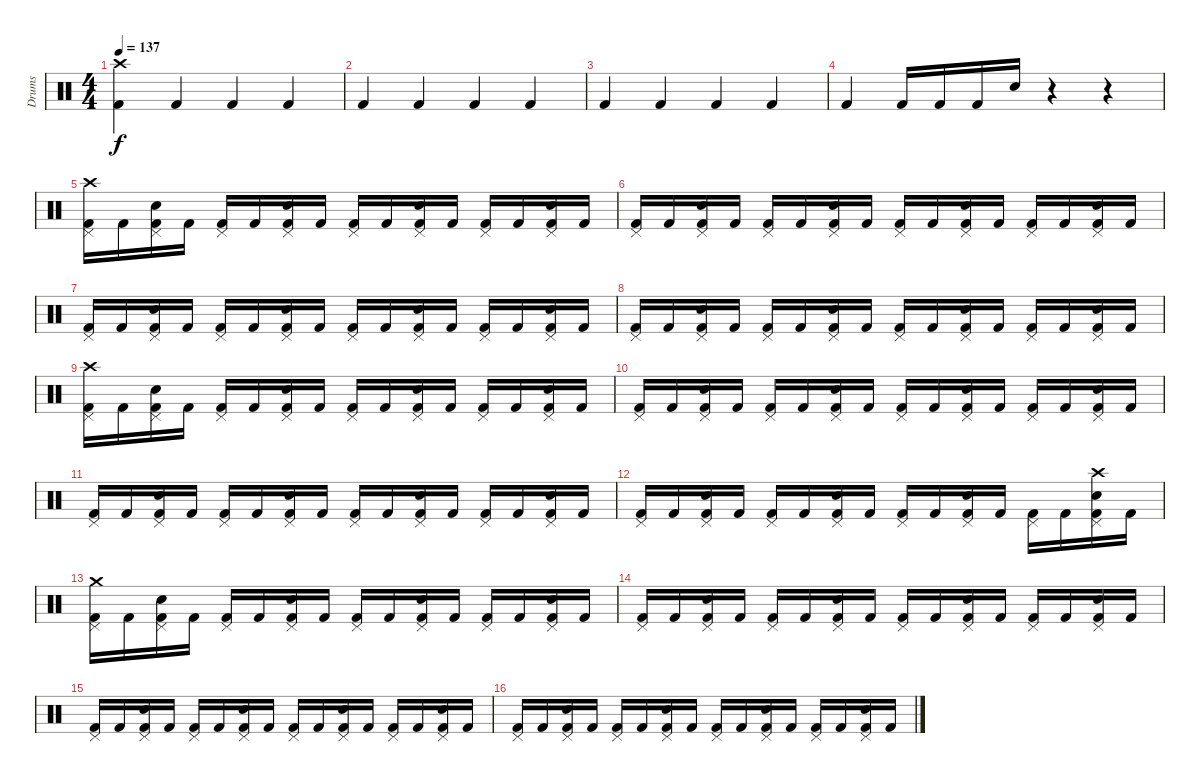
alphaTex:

\track ("Drums" "Drums") {instrument percussion}
\staff
\articulation defaults
\ts (4 4)
\tempo 137
\clef neutral
\ks c
("Crash high (hit)" "Kick (hit) 2").4{dy f} "Kick (hit) 2".4 "Kick (hit) 2".4 "Kick (hit) 2".4 |
"Kick (hit) 2".4 "Kick (hit) 2".4 "Kick (hit) 2".4 "Kick (hit) 2".4 |
"Kick (hit) 2".4 "Kick (hit) 2".4 "Kick (hit) 2".4 "Kick (hit) 2".4 |
"Kick (hit) 2".4 "Kick (hit) 2".16 "Kick (hit) 2".16 "Kick (hit) 2".16 "Snare (hit) 2".16 r.4 r.4 |
("Crash high (hit)" "Pedal Hi-Hat (hit)" "Kick (hit) 2").16 "Kick (hit) 2".16 ("Pedal Hi-Hat (hit)" "Snare (hit) 2" "Kick (hit) 2").16 "Kick (hit) 2".16 ("Pedal Hi-Hat (hit)" "Kick (hit) 2").16 "Kick (hit) 2".16 ("Pedal Hi-Hat (hit)" "Snare (hit) 2" "Kick (hit) 2").16 "Kick (hit) 2".16 ("Pedal Hi-Hat (hit)" "Kick (hit) 2").16 "Kick (hit) 2".16 ("Pedal Hi-Hat (hit)" "Snare (hit) 2" "Kick (hit) 2").16 "Kick (hit) 2".16 ("Pedal Hi-Hat (hit)" "Kick (hit) 2").16 "Kick (hit) 2".16 ("Pedal Hi-Hat (hit)" "Snare (hit) 2" "Kick (hit) 2").16 "Kick (hit) 2".16 |
("Pedal Hi-Hat (hit)" "Kick (hit) 2").16 "Kick (hit) 2".16 ("Pedal Hi-Hat (hit)" "Snare (hit) 2" "Kick (hit) 2").16 "Kick (hit) 2".16 ("Pedal Hi-Hat (hit)" "Kick (hit) 2").16 "Kick (hit) 2".16 ("Pedal Hi-Hat (hit)" "Snare (hit) 2" "Kick (hit) 2").16 "Kick (hit) 2".16 ("Pedal Hi-Hat (hit)" "Kick (hit) 2").16 "Kick (hit) 2".16 ("Pedal Hi-Hat (hit)" "Snare (hit) 2" "Kick (hit) 2").16 "Kick (hit) 2".16 ("Pedal Hi-Hat (hit)" "Kick (hit) 2").16 "Kick (hit) 2".16 ("Pedal Hi-Hat (hit)" "Snare (hit) 2" "Kick (hit) 2").16 "Kick (hit) 2".16 |
("Pedal Hi-Hat (hit)" "Kick (hit) 2").16 "Kick (hit) 2".16 ("Pedal Hi-Hat (hit)" "Snare (hit) 2" "Kick (hit) 2").16 "Kick (hit) 2".16 ("Pedal Hi-Hat (hit)" "Kick (hit) 2").16 "Kick (hit) 2".16 ("Pedal Hi-Hat (hit)" "Snare (hit) 2" "Kick (hit) 2").16 "Kick (hit) 2".16 ("Pedal Hi-Hat (hit)" "Kick (hit) 2").16 "Kick (hit) 2".16 ("Pedal Hi-Hat (hit)" "Snare (hit) 2" "Kick (hit) 2").16 "Kick (hit) 2".16 ("Pedal Hi-Hat (hit)" "Kick (hit) 2").16 "Kick (hit) 2".16 ("Pedal Hi-Hat (hit)" "Snare (hit) 2" "Kick (hit) 2").16 "Kick (hit) 2".16 |
("Pedal Hi-Hat (hit)" "Kick (hit) 2").16 "Kick (hit) 2".16 ("Pedal Hi-Hat (hit)" "Snare (hit) 2" "Kick (hit) 2").16 "Kick (hit) 2".16 ("Pedal Hi-Hat (hit)" "Kick (hit) 2").16 "Kick (hit) 2".16 ("Pedal Hi-Hat (hit)" "Snare (hit) 2" "Kick (hit) 2").16 "Kick (hit) 2".16 ("Pedal Hi-Hat (hit)" "Kick (hit) 2").16 "Kick (hit) 2".16 ("Pedal Hi-Hat (hit)" "Snare (hit) 2" "Kick (hit) 2").16 "Kick (hit) 2".16 ("Pedal Hi-Hat (hit)" "Kick (hit) 2").16 "Kick (hit) 2".16 ("Pedal Hi-Hat (hit)" "Snare (hit) 2" "Kick (hit) 2").16 "Kick (hit) 2".16 |
("Crash high (hit)" "Pedal Hi-Hat (hit)" "Kick (hit) 2").16 "Kick (hit) 2".16 ("Pedal Hi-Hat (hit)" "Snare (hit) 2" "Kick (hit) 2").16 "Kick (hit) 2".16 ("Pedal Hi-Hat (hit)" "Kick (hit) 2").16 "Kick (hit) 2".16 ("Pedal Hi-Hat (hit)" "Snare (hit) 2" "Kick (hit) 2").16 "Kick (hit) 2".16 ("Pedal Hi-Hat (hit)" "Kick (hit) 2").16 "Kick (hit) 2".16 ("Pedal Hi-Hat (hit)" "Snare (hit) 2" "Kick (hit) 2").16 "Kick (hit) 2".16 ("Pedal Hi-Hat (hit)" "Kick (hit) 2").16 "Kick (hit) 2".16 ("Pedal Hi-Hat (hit)" "Snare (hit) 2" "Kick (hit) 2").16 "Kick (hit) 2".16 |
("Pedal Hi-Hat (hit)" "Kick (hit) 2").16 "Kick (hit) 2".16 ("Pedal Hi-Hat (hit)" "Snare (hit) 2" "Kick (hit) 2").16 "Kick (hit) 2".16 ("Pedal Hi-Hat (hit)" "Kick (hit) 2").16 "Kick (hit) 2".16 ("Pedal Hi-Hat (hit)" "Snare (hit) 2" "Kick (hit) 2").16 "Kick (hit) 2".16 ("Pedal Hi-Hat (hit)" "Kick (hit) 2").16 "Kick (hit) 2".16 ("Pedal Hi-Hat (hit)" "Snare (hit) 2" "Kick (hit) 2").16 "Kick (hit) 2".16 ("Pedal Hi-Hat (hit)" "Kick (hit) 2").16 "Kick (hit) 2".16 ("Pedal Hi-Hat (hit)" "Snare (hit) 2" "Kick (hit) 2").16 "Kick (hit) 2".16 |
("Pedal Hi-Hat (hit)" "Kick (hit) 2").16 "Kick (hit) 2".16 ("Pedal Hi-Hat (hit)" "Snare (hit) 2" "Kick (hit) 2").16 "Kick (hit) 2".16 ("Pedal Hi-Hat (hit)" "Kick (hit) 2").16 "Kick (hit) 2".16 ("Pedal Hi-Hat (hit)" "Snare (hit) 2" "Kick (hit) 2").16 "Kick (hit) 2".16 ("Pedal Hi-Hat (hit)" "Kick (hit) 2").16 "Kick (hit) 2".16 ("Pedal Hi-Hat (hit)" "Snare (hit) 2" "Kick (hit) 2").16 "Kick (hit) 2".16 ("Pedal Hi-Hat (hit)" "Kick (hit) 2").16 "Kick (hit) 2".16 ("Pedal Hi-Hat (hit)" "Snare (hit) 2" "Kick (hit) 2").16 "Kick (hit) 2".16 |
("Pedal Hi-Hat (hit)" "Kick (hit) 2").16 "Kick (hit) 2".16 ("Pedal Hi-Hat (hit)" "Snare (hit) 2" "Kick (hit) 2").16 "Kick (hit) 2".16 ("Pedal Hi-Hat (hit)" "Kick (hit) 2").16 "Kick (hit) 2".16 ("Pedal Hi-Hat (hit)" "Snare (hit) 2" "Kick (hit) 2").16 "Kick (hit) 2".16 ("Pedal Hi-Hat (hit)" "Kick (hit) 2").16 "Kick (hit) 2".16 ("Pedal Hi-Hat (hit)" "Snare (hit) 2" "Kick (hit) 2").16 "Kick (hit) 2".16 ("Pedal Hi-Hat (hit)" "Kick (hit) 2").16 "Kick (hit) 2".16 ("Crash high (hit)" "Pedal Hi-Hat (hit)" "Snare (hit) 2" "Kick (hit) 2").16 "Kick (hit) 2".16 |
("Crash medium (hit)" "Pedal Hi-Hat (hit)" "Kick (hit) 2").16 "Kick (hit) 2".16 ("Pedal Hi-Hat (hit)" "Snare (hit) 2" "Kick (hit) 2").16 "Kick (hit) 2".16 ("Pedal Hi-Hat (hit)" "Kick (hit) 2").16 "Kick (hit) 2".16 ("Pedal Hi-Hat (hit)" "Snare (hit) 2" "Kick (hit) 2").16 "Kick (hit) 2".16 ("Pedal Hi-Hat (hit)" "Kick (hit) 2").16 "Kick (hit) 2".16 ("Pedal Hi-Hat (hit)" "Snare (hit) 2" "Kick (hit) 2").16 "Kick (hit) 2".16 ("Pedal Hi-Hat (hit)" "Kick (hit) 2").16 "Kick (hit) 2".16 ("Pedal Hi-Hat (hit)" "Snare (hit) 2" "Kick (hit) 2").16 "Kick (hit) 2".16 |
("Pedal Hi-Hat (hit)" "Kick (hit) 2").16 "Kick (hit) 2".16 ("Pedal Hi-Hat (hit)" "Snare (hit) 2" "Kick (hit) 2").16 "Kick (hit) 2".16 ("Pedal Hi-Hat (hit)" "Kick (hit) 2").16 "Kick (hit) 2".16 ("Pedal Hi-Hat (hit)" "Snare (hit) 2" "Kick (hit) 2").16 "Kick (hit) 2".16 ("Pedal Hi-Hat (hit)" "Kick (hit) 2").16 "Kick (hit) 2".16 ("Pedal Hi-Hat (hit)" "Snare (hit) 2" "Kick (hit) 2").16 "Kick (hit) 2".16 ("Pedal Hi-Hat (hit)" "Kick (hit) 2").16 "Kick (hit) 2".16 ("Pedal Hi-Hat (hit)" "Snare (hit) 2" "Kick (hit) 2").16 "Kick (hit) 2".16 |
("Pedal Hi-Hat (hit)" "Kick (hit) 2").16 "Kick (hit) 2".16 ("Pedal Hi-Hat (hit)" "Snare (hit) 2" "Kick (hit) 2").16 "Kick (hit) 2".16 ("Pedal Hi-Hat (hit)" "Kick (hit) 2").16 "Kick (hit) 2".16 ("Pedal Hi-Hat (hit)" "Snare (hit) 2" "Kick (hit) 2").16 "Kick (hit) 2".16 ("Pedal Hi-Hat (hit)" "Kick (hit) 2").16 "Kick (hit) 2".16 ("Pedal Hi-Hat (hit)" "Snare (hit) 2" "Kick (hit) 2").16 "Kick (hit) 2".16 ("Pedal Hi-Hat (hit)" "Kick (hit) 2").16 "Kick (hit) 2".16 ("Pedal Hi-Hat (hit)" "Snare (hit) 2" "Kick (hit) 2").16 "Kick (hit) 2".16 |
("Pedal Hi-Hat (hit)" "Kick (hit) 2").16 "Kick (hit) 2".16 ("Pedal Hi-Hat (hit)" "Snare (hit) 2" "Kick (hit) 2").16 "Kick (hit) 2".16 ("Pedal Hi-Hat (hit)" "Kick (hit) 2").16 "Kick (hit) 2".16 ("Pedal Hi-Hat (hit)" "Snare (hit) 2" "Kick (hit) 2").16 "Kick (hit) 2".16 ("Pedal Hi-Hat (hit)" "Kick (hit) 2").16 "Kick (hit) 2".16 ("Pedal Hi-Hat (hit)" "Snare (hit) 2" "Kick (hit) 2").16 "Kick (hit) 2".16 ("Pedal Hi-Hat (hit)" "Kick (hit) 2").16 "Kick (hit) 2".16 ("Pedal Hi-Hat (hit)" "Snare (hit) 2" "Kick (hit) 2").16 "Kick (hit) 2".16
